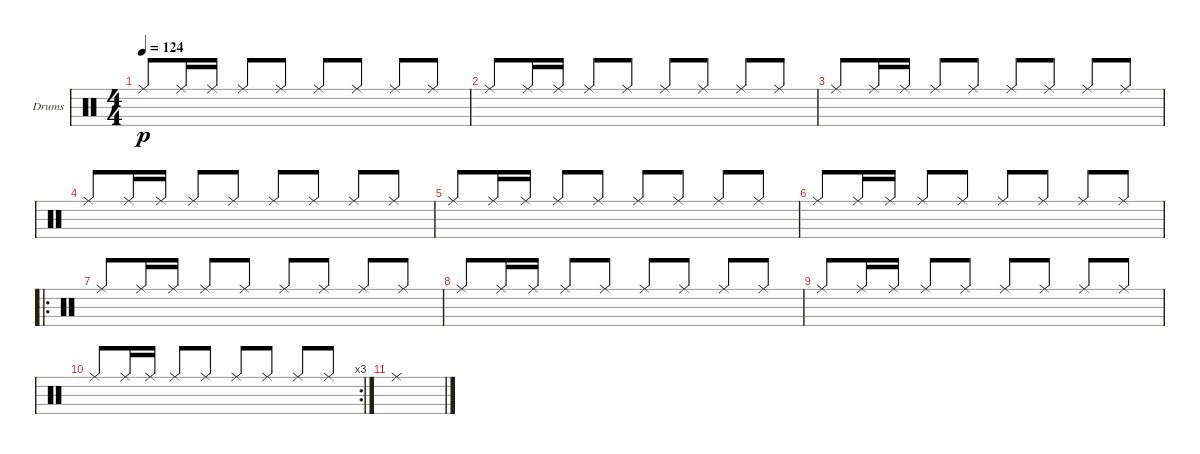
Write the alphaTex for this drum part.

\bracketExtendMode groupsimilarinstruments
\firstSystemTrackNameOrientation horizontal
\otherSystemsTrackNameOrientation horizontal
\track ("Ride Cymbal" "Drums") {instrument percussion}
\staff {score}
\articulation defaults
\ts (4 4)
\tempo 124
\clef neutral
\scale
0.333333
\ks c "Ride (middle)".8{dy p beam invert} "Ride (middle)".16 "Ride (middle)".16 "Ride (middle)".8{beam invert} "Ride (middle)".8 "Ride (middle)".8{beam invert} "Ride (middle)".8 "Ride (middle)".8{beam invert} "Ride (middle)".8
|
\scale
0.333333 "Ride (middle)".8{beam invert} "Ride (middle)".16 "Ride (middle)".16 "Ride (middle)".8{beam invert} "Ride (middle)".8 "Ride (middle)".8{beam invert} "Ride (middle)".8 "Ride (middle)".8{beam invert} "Ride (middle)".8 |
\scale
0.333333 "Ride (middle)".8{beam invert} "Ride (middle)".16 "Ride (middle)".16 "Ride (middle)".8{beam invert} "Ride (middle)".8 "Ride (middle)".8{beam invert} "Ride (middle)".8 "Ride (middle)".8{beam invert} "Ride (middle)".8 |
\scale
0.333333 "Ride (middle)".8{beam invert} "Ride (middle)".16 "Ride (middle)".16 "Ride (middle)".8{beam invert} "Ride (middle)".8 "Ride (middle)".8{beam invert} "Ride (middle)".8 "Ride (middle)".8{beam invert} "Ride (middle)".8 |
\scale
0.311111 "Ride (middle)".8{beam invert} "Ride (middle)".16 "Ride (middle)".16 "Ride (middle)".8{beam invert} "Ride (middle)".8 "Ride (middle)".8{beam invert} "Ride (middle)".8 "Ride (middle)".8{beam invert} "Ride (middle)".8 |
\scale
0.311111 "Ride (middle)".8{beam invert} "Ride (middle)".16 "Ride (middle)".16 "Ride (middle)".8{beam invert} "Ride (middle)".8 "Ride (middle)".8{beam invert} "Ride (middle)".8 "Ride (middle)".8{beam invert} "Ride (middle)".8 |
\ro
\scale
0.377778 "Ride (middle)".8{beam invert} "Ride (middle)".16 "Ride (middle)".16 "Ride (middle)".8{beam invert} "Ride (middle)".8 "Ride (middle)".8{beam invert} "Ride (middle)".8 "Ride (middle)".8{beam invert} "Ride (middle)".8 |
"Ride (middle)".8{beam invert} "Ride (middle)".16 "Ride (middle)".16 "Ride (middle)".8{beam invert} "Ride (middle)".8 "Ride (middle)".8{beam invert} "Ride (middle)".8 "Ride (middle)".8{beam invert} "Ride (middle)".8 |
"Ride (middle)".8{beam invert} "Ride (middle)".16 "Ride (middle)".16 "Ride (middle)".8{beam invert} "Ride (middle)".8 "Ride (middle)".8{beam invert} "Ride (middle)".8 "Ride (middle)".8{beam invert} "Ride (middle)".8 |
\rc 3 "Ride (middle)".8{beam invert} "Ride (middle)".16 "Ride (middle)".16 "Ride (middle)".8{beam invert} "Ride (middle)".8 "Ride (middle)".8{beam invert} "Ride (middle)".8 "Ride (middle)".8{beam invert} "Ride (middle)".8
|
"Ride (middle)".1
